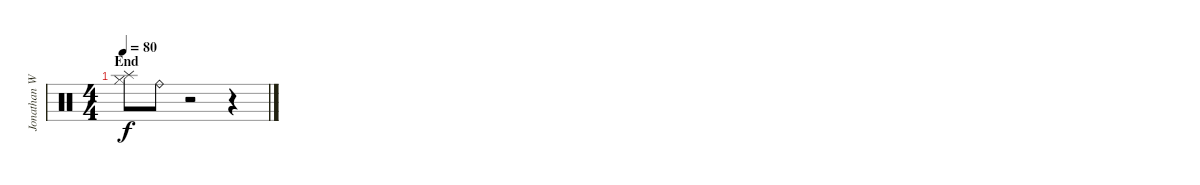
\track ("Jonathan Wenzel" "Jonathan W") {instrument percussion}
\staff {score}
\articulation defaults
\ts (4 4)
\section ("" "End")
\tempo 80
\clef neutral
\ks c
("Hi-Hat (closed)" "Splash (hit)").8{dy f} "Ride (bell)".8 r.2 r.4
